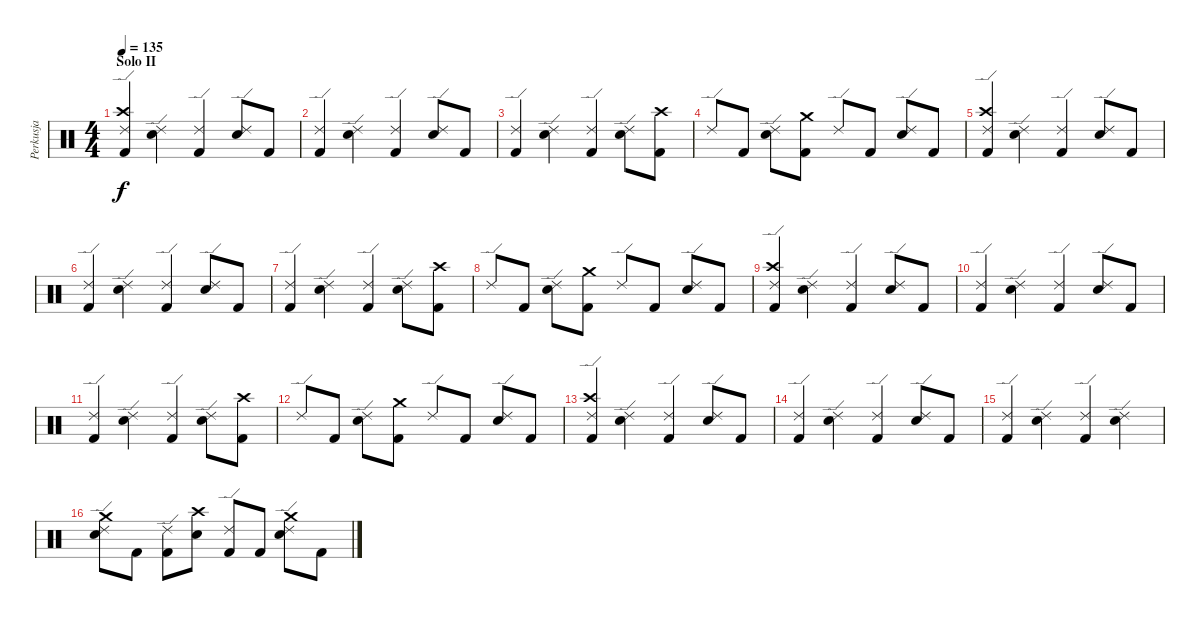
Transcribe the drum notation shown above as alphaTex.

\track ("Perkusja" "Perkusja") {instrument percussion}
\staff {score}
\articulation defaults
\ts (4 4)
\section ("" "Solo II")
\tempo 135
\clef neutral
\ks c
("Ride (edge) 2" "Crash high (hit)" "Kick (hit) 2").4{dy f} ("Ride (edge) 2" "Electric Snare (hit)").4 ("Ride (edge) 2" "Kick (hit) 2").4 ("Ride (edge) 2" "Electric Snare (hit)").8 "Kick (hit) 2".8 |
("Ride (edge) 2" "Kick (hit) 2").4 ("Ride (edge) 2" "Electric Snare (hit)").4 ("Ride (edge) 2" "Kick (hit) 2").4 ("Ride (edge) 2" "Electric Snare (hit)").8 "Kick (hit) 2".8 |
("Ride (edge) 2" "Kick (hit) 2").4 ("Ride (edge) 2" "Electric Snare (hit)").4 ("Ride (edge) 2" "Kick (hit) 2").4 ("Ride (edge) 2" "Electric Snare (hit)").8 ("Kick (hit) 2" "Crash high (hit)").8 |
"Ride (edge) 2".8 "Kick (hit) 2".8 ("Ride (edge) 2" "Electric Snare (hit)").8 ("Kick (hit) 2" "Crash medium (hit)").8 "Ride (edge) 2".8 "Kick (hit) 2".8 ("Ride (edge) 2" "Electric Snare (hit)").8 "Kick (hit) 2".8 |
("Ride (edge) 2" "Crash high (hit)" "Kick (hit) 2").4 ("Ride (edge) 2" "Electric Snare (hit)").4 ("Ride (edge) 2" "Kick (hit) 2").4 ("Ride (edge) 2" "Electric Snare (hit)").8 "Kick (hit) 2".8 |
("Ride (edge) 2" "Kick (hit) 2").4 ("Ride (edge) 2" "Electric Snare (hit)").4 ("Ride (edge) 2" "Kick (hit) 2").4 ("Ride (edge) 2" "Electric Snare (hit)").8 "Kick (hit) 2".8 |
("Ride (edge) 2" "Kick (hit) 2").4 ("Ride (edge) 2" "Electric Snare (hit)").4 ("Ride (edge) 2" "Kick (hit) 2").4 ("Ride (edge) 2" "Electric Snare (hit)").8 ("Kick (hit) 2" "Crash high (hit)").8 |
"Ride (edge) 2".8 "Kick (hit) 2".8 ("Ride (edge) 2" "Electric Snare (hit)").8 ("Kick (hit) 2" "Crash medium (hit)").8 "Ride (edge) 2".8 "Kick (hit) 2".8 ("Ride (edge) 2" "Electric Snare (hit)").8 "Kick (hit) 2".8 |
("Ride (edge) 2" "Crash high (hit)" "Kick (hit) 2").4 ("Ride (edge) 2" "Electric Snare (hit)").4 ("Ride (edge) 2" "Kick (hit) 2").4 ("Ride (edge) 2" "Electric Snare (hit)").8 "Kick (hit) 2".8 |
("Ride (edge) 2" "Kick (hit) 2").4 ("Ride (edge) 2" "Electric Snare (hit)").4 ("Ride (edge) 2" "Kick (hit) 2").4 ("Ride (edge) 2" "Electric Snare (hit)").8 "Kick (hit) 2".8 |
("Ride (edge) 2" "Kick (hit) 2").4 ("Ride (edge) 2" "Electric Snare (hit)").4 ("Ride (edge) 2" "Kick (hit) 2").4 ("Ride (edge) 2" "Electric Snare (hit)").8 ("Kick (hit) 2" "Crash high (hit)").8 |
"Ride (edge) 2".8 "Kick (hit) 2".8 ("Ride (edge) 2" "Electric Snare (hit)").8 ("Kick (hit) 2" "Crash medium (hit)").8 "Ride (edge) 2".8 "Kick (hit) 2".8 ("Ride (edge) 2" "Electric Snare (hit)").8 "Kick (hit) 2".8 |
("Ride (edge) 2" "Crash high (hit)" "Kick (hit) 2").4 ("Ride (edge) 2" "Electric Snare (hit)").4 ("Ride (edge) 2" "Kick (hit) 2").4 ("Ride (edge) 2" "Electric Snare (hit)").8 "Kick (hit) 2".8 |
("Ride (edge) 2" "Kick (hit) 2").4 ("Ride (edge) 2" "Electric Snare (hit)").4 ("Ride (edge) 2" "Kick (hit) 2").4 ("Ride (edge) 2" "Electric Snare (hit)").8 "Kick (hit) 2".8 |
("Ride (edge) 2" "Kick (hit) 2").4 ("Ride (edge) 2" "Electric Snare (hit)").4 ("Ride (edge) 2" "Kick (hit) 2").4 ("Ride (edge) 2" "Electric Snare (hit)").4 |
("Ride (edge) 2" "Electric Snare (hit)" "Crash medium (hit)").8 "Kick (hit) 2".8 ("Ride (edge) 2" "Kick (hit) 2").8 ("Electric Snare (hit)" "Crash high (hit)").8 ("Ride (edge) 2" "Kick (hit) 2").8 "Kick (hit) 2".8 ("Ride (edge) 2" "Electric Snare (hit)" "Crash medium (hit)").8 "Kick (hit) 2".8
